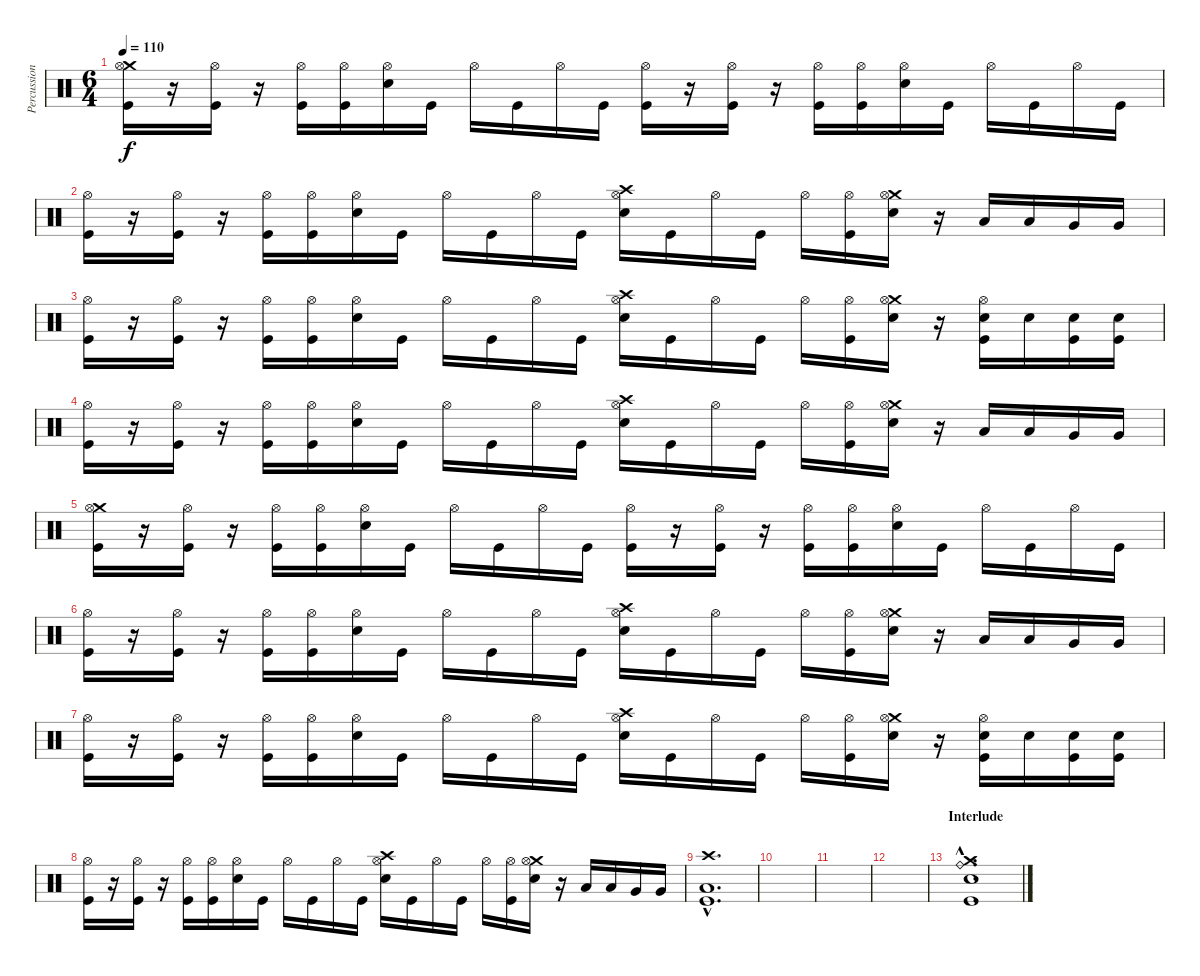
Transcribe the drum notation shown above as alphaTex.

\track ("Percussion" "Percussion") {instrument percussion}
\staff {score}
\articulation defaults
\ts (6 4)
\tempo 110
\clef neutral
\ks c
("Crash medium (hit)" "Hi-Hat (open)" "Kick (hit)").16{dy f} r.16 ("Hi-Hat (open)" "Kick (hit)").16 r.16 ("Hi-Hat (open)" "Kick (hit)").16 ("Hi-Hat (open)" "Kick (hit)").16 ("Hi-Hat (open)" "Electric Snare (hit)").16 "Kick (hit)".16 "Hi-Hat (open)".16 "Kick (hit)".16 "Hi-Hat (open)".16 "Kick (hit)".16 ("Hi-Hat (open)" "Kick (hit)").16 r.16 ("Hi-Hat (open)" "Kick (hit)").16 r.16 ("Hi-Hat (open)" "Kick (hit)").16 ("Hi-Hat (open)" "Kick (hit)").16 ("Hi-Hat (open)" "Electric Snare (hit)").16 "Kick (hit)".16 "Hi-Hat (open)".16 "Kick (hit)".16 "Hi-Hat (open)".16 "Kick (hit)".16 |
("Hi-Hat (open)" "Kick (hit)").16 r.16 ("Hi-Hat (open)" "Kick (hit)").16 r.16 ("Hi-Hat (open)" "Kick (hit)").16 ("Hi-Hat (open)" "Kick (hit)").16 ("Hi-Hat (open)" "Electric Snare (hit)").16 "Kick (hit)".16 "Hi-Hat (open)".16 "Kick (hit)".16 "Hi-Hat (open)".16 "Kick (hit)".16 ("Crash high (hit)" "Hi-Hat (open)" "Electric Snare (hit)").16 "Kick (hit)".16 "Hi-Hat (open)".16 "Kick (hit)".16 "Hi-Hat (open)".16 ("Hi-Hat (open)" "Kick (hit)").16 ("Crash medium (hit)" "Hi-Hat (open)" "Electric Snare (hit)").16 r.16 "Low Tom (hit)".16 "Low Tom (hit)".16 "Very Low Tom (hit)".16 "Very Low Tom (hit)".16 |
("Hi-Hat (open)" "Kick (hit)").16 r.16 ("Hi-Hat (open)" "Kick (hit)").16 r.16 ("Hi-Hat (open)" "Kick (hit)").16 ("Hi-Hat (open)" "Kick (hit)").16 ("Hi-Hat (open)" "Electric Snare (hit)").16 "Kick (hit)".16 "Hi-Hat (open)".16 "Kick (hit)".16 "Hi-Hat (open)".16 "Kick (hit)".16 ("Crash high (hit)" "Hi-Hat (open)" "Electric Snare (hit)").16 "Kick (hit)".16 "Hi-Hat (open)".16 "Kick (hit)".16 "Hi-Hat (open)".16 ("Hi-Hat (open)" "Kick (hit)").16 ("Crash medium (hit)" "Hi-Hat (open)" "Electric Snare (hit)").16 r.16 ("Hi-Hat (open)" "Electric Snare (hit)" "Kick (hit)").16 "Electric Snare (hit)".16 ("Electric Snare (hit)" "Kick (hit)").16 ("Electric Snare (hit)" "Kick (hit)").16 |
("Hi-Hat (open)" "Kick (hit)").16 r.16 ("Hi-Hat (open)" "Kick (hit)").16 r.16 ("Hi-Hat (open)" "Kick (hit)").16 ("Hi-Hat (open)" "Kick (hit)").16 ("Hi-Hat (open)" "Electric Snare (hit)").16 "Kick (hit)".16 "Hi-Hat (open)".16 "Kick (hit)".16 "Hi-Hat (open)".16 "Kick (hit)".16 ("Crash high (hit)" "Hi-Hat (open)" "Electric Snare (hit)").16 "Kick (hit)".16 "Hi-Hat (open)".16 "Kick (hit)".16 "Hi-Hat (open)".16 ("Hi-Hat (open)" "Kick (hit)").16 ("Crash medium (hit)" "Hi-Hat (open)" "Electric Snare (hit)").16 r.16 "Low Tom (hit)".16 "Low Tom (hit)".16 "Very Low Tom (hit)".16 "Very Low Tom (hit)".16 |
("Crash medium (hit)" "Hi-Hat (open)" "Kick (hit)").16 r.16 ("Hi-Hat (open)" "Kick (hit)").16 r.16 ("Hi-Hat (open)" "Kick (hit)").16 ("Hi-Hat (open)" "Kick (hit)").16 ("Hi-Hat (open)" "Electric Snare (hit)").16 "Kick (hit)".16 "Hi-Hat (open)".16 "Kick (hit)".16 "Hi-Hat (open)".16 "Kick (hit)".16 ("Hi-Hat (open)" "Kick (hit)").16 r.16 ("Hi-Hat (open)" "Kick (hit)").16 r.16 ("Hi-Hat (open)" "Kick (hit)").16 ("Hi-Hat (open)" "Kick (hit)").16 ("Hi-Hat (open)" "Electric Snare (hit)").16 "Kick (hit)".16 "Hi-Hat (open)".16 "Kick (hit)".16 "Hi-Hat (open)".16 "Kick (hit)".16 |
("Hi-Hat (open)" "Kick (hit)").16 r.16 ("Hi-Hat (open)" "Kick (hit)").16 r.16 ("Hi-Hat (open)" "Kick (hit)").16 ("Hi-Hat (open)" "Kick (hit)").16 ("Hi-Hat (open)" "Electric Snare (hit)").16 "Kick (hit)".16 "Hi-Hat (open)".16 "Kick (hit)".16 "Hi-Hat (open)".16 "Kick (hit)".16 ("Crash high (hit)" "Hi-Hat (open)" "Electric Snare (hit)").16 "Kick (hit)".16 "Hi-Hat (open)".16 "Kick (hit)".16 "Hi-Hat (open)".16 ("Hi-Hat (open)" "Kick (hit)").16 ("Crash medium (hit)" "Hi-Hat (open)" "Electric Snare (hit)").16 r.16 "Low Tom (hit)".16 "Low Tom (hit)".16 "Very Low Tom (hit)".16 "Very Low Tom (hit)".16 |
("Hi-Hat (open)" "Kick (hit)").16 r.16 ("Hi-Hat (open)" "Kick (hit)").16 r.16 ("Hi-Hat (open)" "Kick (hit)").16 ("Hi-Hat (open)" "Kick (hit)").16 ("Hi-Hat (open)" "Electric Snare (hit)").16 "Kick (hit)".16 "Hi-Hat (open)".16 "Kick (hit)".16 "Hi-Hat (open)".16 "Kick (hit)".16 ("Crash high (hit)" "Hi-Hat (open)" "Electric Snare (hit)").16 "Kick (hit)".16 "Hi-Hat (open)".16 "Kick (hit)".16 "Hi-Hat (open)".16 ("Hi-Hat (open)" "Kick (hit)").16 ("Crash medium (hit)" "Hi-Hat (open)" "Electric Snare (hit)").16 r.16 ("Hi-Hat (open)" "Electric Snare (hit)" "Kick (hit)").16 "Electric Snare (hit)".16 ("Electric Snare (hit)" "Kick (hit)").16 ("Electric Snare (hit)" "Kick (hit)").16 |
("Hi-Hat (open)" "Kick (hit)").16 r.16 ("Hi-Hat (open)" "Kick (hit)").16 r.16 ("Hi-Hat (open)" "Kick (hit)").16 ("Hi-Hat (open)" "Kick (hit)").16 ("Hi-Hat (open)" "Electric Snare (hit)").16 "Kick (hit)".16 "Hi-Hat (open)".16 "Kick (hit)".16 "Hi-Hat (open)".16 "Kick (hit)".16 ("Crash high (hit)" "Hi-Hat (open)" "Electric Snare (hit)").16 "Kick (hit)".16 "Hi-Hat (open)".16 "Kick (hit)".16 "Hi-Hat (open)".16 ("Hi-Hat (open)" "Kick (hit)").16 ("Crash medium (hit)" "Hi-Hat (open)" "Electric Snare (hit)").16 r.16 "Low Tom (hit)".16 "Low Tom (hit)".16 "Very Low Tom (hit)".16 "Very Low Tom (hit)".16 |
("Crash high (hit)"{hac} "Low Floor Tom (hit)"{hac} "Kick (hit)"{hac}).1{d} |
|
|
|
\section ("" "Interlude")
("Crash medium (hit)"{hac} "Ride (bell)"{hac} "Electric Snare (hit)"{hac} "Kick (hit)"{hac}).1{d}
